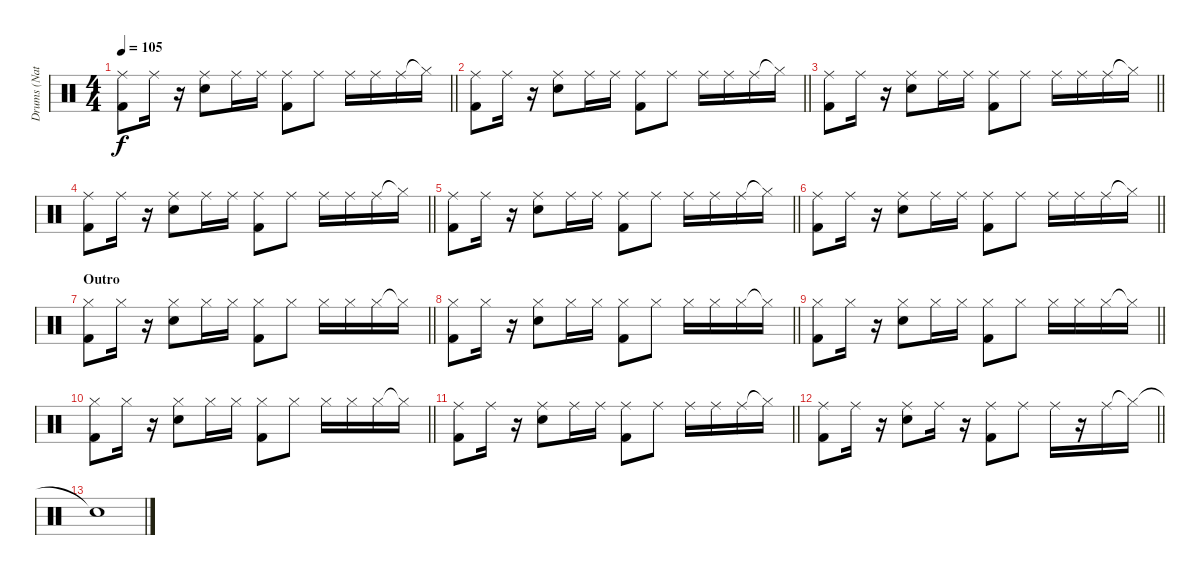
\track ("Drums (Nathan)" "Drums (Nat") {instrument percussion}
\staff {score}
\articulation defaults
\ts (4 4)
\tempo 105
\clef neutral
\barLineRight lightlight
\ks c
("Ride (middle)" "Kick (hit) 2").8{dy f} "Ride (middle)".16 r.16 ("Ride (middle)" "Electric Snare (hit)").8 "Ride (middle)".16 "Ride (middle)".16 ("Ride (middle)" "Kick (hit) 2").8 "Ride (middle)".8 "Ride (middle)".16 "Ride (middle)".16 "Ride (middle)".16 "Hi-Hat (closed)"{t}.16 |
\barLineRight lightlight
("Ride (middle)" "Kick (hit) 2").8 "Ride (middle)".16 r.16 ("Ride (middle)" "Electric Snare (hit)").8 "Ride (middle)".16 "Ride (middle)".16 ("Ride (middle)" "Kick (hit) 2").8 "Ride (middle)".8 "Ride (middle)".16 "Ride (middle)".16 "Ride (middle)".16 "Hi-Hat (closed)"{t}.16 |
\barLineRight lightlight
("Ride (middle)" "Kick (hit) 2").8 "Ride (middle)".16 r.16 ("Ride (middle)" "Electric Snare (hit)").8 "Ride (middle)".16 "Ride (middle)".16 ("Ride (middle)" "Kick (hit) 2").8 "Ride (middle)".8 "Ride (middle)".16 "Ride (middle)".16 "Ride (middle)".16 "Hi-Hat (closed)"{t}.16 |
\barLineRight lightlight
("Ride (middle)" "Kick (hit) 2").8 "Ride (middle)".16 r.16 ("Ride (middle)" "Electric Snare (hit)").8 "Ride (middle)".16 "Ride (middle)".16 ("Ride (middle)" "Kick (hit) 2").8 "Ride (middle)".8 "Ride (middle)".16 "Ride (middle)".16 "Ride (middle)".16 "Hi-Hat (closed)"{t}.16 |
\barLineRight lightlight
("Ride (middle)" "Kick (hit) 2").8 "Ride (middle)".16 r.16 ("Ride (middle)" "Electric Snare (hit)").8 "Ride (middle)".16 "Ride (middle)".16 ("Ride (middle)" "Kick (hit) 2").8 "Ride (middle)".8 "Ride (middle)".16 "Ride (middle)".16 "Ride (middle)".16 "Hi-Hat (closed)"{t}.16 |
\barLineRight lightlight
("Ride (middle)" "Kick (hit) 2").8 "Ride (middle)".16 r.16 ("Ride (middle)" "Electric Snare (hit)").8 "Ride (middle)".16 "Ride (middle)".16 ("Ride (middle)" "Kick (hit) 2").8 "Ride (middle)".8 "Ride (middle)".16 "Ride (middle)".16 "Ride (middle)".16 "Hi-Hat (closed)"{t}.16 |
\section ("" "Outro")
\barLineRight lightlight
("Hi-Hat (closed)" "Kick (hit) 2").8 "Hi-Hat (closed)".16 r.16 ("Hi-Hat (closed)" "Electric Snare (hit)").8 "Hi-Hat (closed)".16 "Hi-Hat (closed)".16 ("Hi-Hat (closed)" "Kick (hit) 2").8 "Hi-Hat (closed)".8 "Hi-Hat (closed)".16 "Hi-Hat (closed)".16 "Hi-Hat (closed)".16 "Hi-Hat (closed)"{t}.16 |
\barLineRight lightlight
("Hi-Hat (closed)" "Kick (hit) 2").8 "Hi-Hat (closed)".16 r.16 ("Hi-Hat (closed)" "Electric Snare (hit)").8 "Hi-Hat (closed)".16 "Hi-Hat (closed)".16 ("Hi-Hat (closed)" "Kick (hit) 2").8 "Hi-Hat (closed)".8 "Hi-Hat (closed)".16 "Hi-Hat (closed)".16 "Hi-Hat (closed)".16 "Hi-Hat (closed)"{t}.16 |
\barLineRight lightlight
("Hi-Hat (closed)" "Kick (hit) 2").8 "Hi-Hat (closed)".16 r.16 ("Hi-Hat (closed)" "Electric Snare (hit)").8 "Hi-Hat (closed)".16 "Hi-Hat (closed)".16 ("Hi-Hat (closed)" "Kick (hit) 2").8 "Hi-Hat (closed)".8 "Hi-Hat (closed)".16 "Hi-Hat (closed)".16 "Hi-Hat (closed)".16 "Hi-Hat (closed)"{t}.16 |
\barLineRight lightlight
("Hi-Hat (closed)" "Kick (hit) 2").8 "Hi-Hat (closed)".16 r.16 ("Hi-Hat (closed)" "Electric Snare (hit)").8 "Hi-Hat (closed)".16 "Hi-Hat (closed)".16 ("Hi-Hat (closed)" "Kick (hit) 2").8 "Hi-Hat (closed)".8 "Hi-Hat (closed)".16 "Hi-Hat (closed)".16 "Hi-Hat (closed)".16 "Hi-Hat (closed)"{t}.16 |
\barLineRight lightlight
("Ride (middle)" "Kick (hit) 2").8 "Ride (middle)".16 r.16 ("Ride (middle)" "Electric Snare (hit)").8 "Ride (middle)".16 "Ride (middle)".16 ("Ride (middle)" "Kick (hit) 2").8 "Ride (middle)".8 "Ride (middle)".16 "Ride (middle)".16 "Ride (middle)".16 "Hi-Hat (closed)"{t}.16 |
\barLineRight lightlight
("Ride (middle)" "Kick (hit) 2").8 "Ride (middle)".16 r.16 ("Ride (middle)" "Electric Snare (hit)").8 "Ride (middle)".16 r.16 ("Ride (middle)" "Kick (hit) 2").8 "Ride (middle)".8 "Ride (middle)".16 r.16 "Ride (middle)".16 "Hi-Hat (closed)"{t}.16 |
"Snare (hit)"{t}.1
